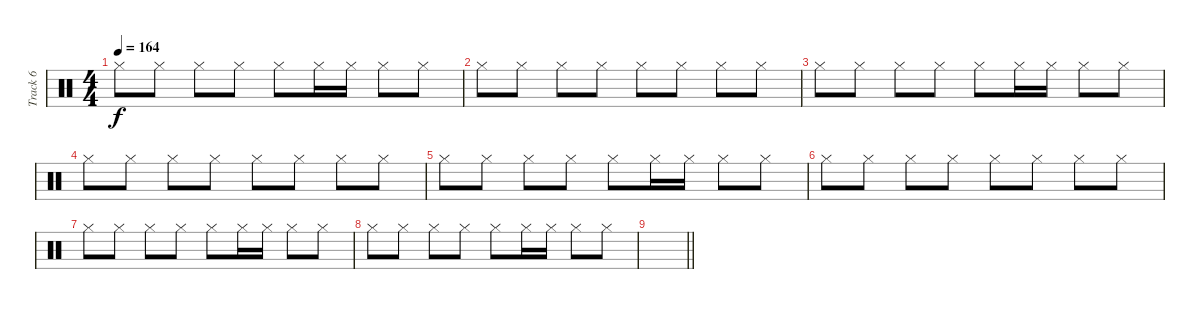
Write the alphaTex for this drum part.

\track ("Track 6" "Track 6") {instrument percussion}
\staff {score}
\articulation defaults
\ts (4 4)
\tempo 164
\clef neutral
\ks c "Hi-Hat (closed)".8{dy f} "Hi-Hat (closed)".8 "Hi-Hat (closed)".8 "Hi-Hat (closed)".8 "Hi-Hat (closed)".8 "Hi-Hat (closed)".16 "Hi-Hat (closed)".16 "Hi-Hat (closed)".8 "Hi-Hat (closed)".8
|
"Hi-Hat (closed)".8 "Hi-Hat (closed)".8 "Hi-Hat (closed)".8 "Hi-Hat (closed)".8 "Hi-Hat (closed)".8 "Hi-Hat (closed)".8 "Hi-Hat (closed)".8 "Hi-Hat (closed)".8 |
"Hi-Hat (closed)".8 "Hi-Hat (closed)".8 "Hi-Hat (closed)".8 "Hi-Hat (closed)".8 "Hi-Hat (closed)".8 "Hi-Hat (closed)".16 "Hi-Hat (closed)".16 "Hi-Hat (closed)".8 "Hi-Hat (closed)".8 |
"Hi-Hat (closed)".8 "Hi-Hat (closed)".8 "Hi-Hat (closed)".8 "Hi-Hat (closed)".8 "Hi-Hat (closed)".8 "Hi-Hat (closed)".8 "Hi-Hat (closed)".8 "Hi-Hat (closed)".8 |
"Hi-Hat (closed)".8 "Hi-Hat (closed)".8 "Hi-Hat (closed)".8 "Hi-Hat (closed)".8 "Hi-Hat (closed)".8 "Hi-Hat (closed)".16 "Hi-Hat (closed)".16 "Hi-Hat (closed)".8 "Hi-Hat (closed)".8 |
"Hi-Hat (closed)".8 "Hi-Hat (closed)".8 "Hi-Hat (closed)".8 "Hi-Hat (closed)".8 "Hi-Hat (closed)".8 "Hi-Hat (closed)".8 "Hi-Hat (closed)".8 "Hi-Hat (closed)".8 |
"Hi-Hat (closed)".8 "Hi-Hat (closed)".8 "Hi-Hat (closed)".8 "Hi-Hat (closed)".8 "Hi-Hat (closed)".8 "Hi-Hat (closed)".16 "Hi-Hat (closed)".16 "Hi-Hat (closed)".8 "Hi-Hat (closed)".8 |
"Hi-Hat (closed)".8 "Hi-Hat (closed)".8 "Hi-Hat (closed)".8 "Hi-Hat (closed)".8 "Hi-Hat (closed)".8 "Hi-Hat (closed)".16 "Hi-Hat (closed)".16 "Hi-Hat (closed)".8 "Hi-Hat (closed)".8 |
\barLineRight lightlight
